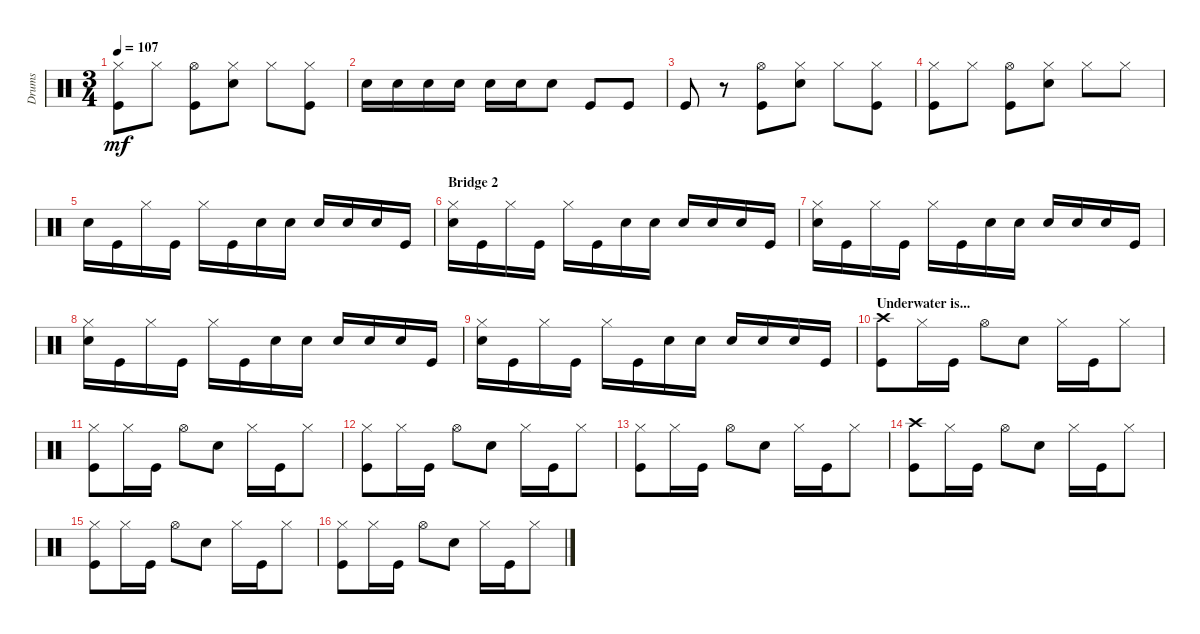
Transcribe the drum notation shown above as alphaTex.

\track ("Drums" "Drums") {instrument percussion}
\staff {score}
\articulation defaults
\ts (3 4)
\tempo 107
\clef neutral
\ks c
("Hi-Hat (closed)" "Kick (hit)").8{dy mf} "Hi-Hat (closed)".8 ("Hi-Hat (open)" "Kick (hit)").8 ("Hi-Hat (closed)" "Snare (hit) 2").8 "Hi-Hat (closed)".8 ("Hi-Hat (closed)" "Kick (hit)").8 |
"Snare (hit) 2".16 "Snare (hit) 2".16 "Snare (hit) 2".16 "Snare (hit) 2".16 "Snare (hit) 2".16 "Snare (hit) 2".16 "Snare (hit) 2".8 "Kick (hit)".8 "Kick (hit)".8 |
"Kick (hit)".8 r.8 ("Hi-Hat (open)" "Kick (hit)").8 ("Snare (hit) 2" "Hi-Hat (closed)").8 "Hi-Hat (closed)".8 ("Hi-Hat (closed)" "Kick (hit)").8 |
("Hi-Hat (closed)" "Kick (hit)").8 "Hi-Hat (closed)".8 ("Hi-Hat (open)" "Kick (hit)").8 ("Hi-Hat (closed)" "Snare (hit) 2").8 "Hi-Hat (closed)".8 "Hi-Hat (closed)".8 |
"Snare (hit) 2".16 "Kick (hit)".16 "Hi-Hat (closed)".16 "Kick (hit)".16 "Hi-Hat (closed)".16 "Kick (hit)".16 "Snare (hit) 2".16 "Snare (hit) 2".16 "Snare (hit) 2".16 "Snare (hit) 2".16 "Snare (hit) 2".16 "Kick (hit)".16 |
\section ("" "Bridge 2")
("Snare (hit) 2" "Hi-Hat (closed)").16 "Kick (hit)".16 "Hi-Hat (closed)".16 "Kick (hit)".16 "Hi-Hat (closed)".16 "Kick (hit)".16 "Snare (hit) 2".16 "Snare (hit) 2".16 "Snare (hit) 2".16 "Snare (hit) 2".16 "Snare (hit) 2".16 "Kick (hit)".16 |
("Snare (hit) 2" "Hi-Hat (closed)").16 "Kick (hit)".16 "Hi-Hat (closed)".16 "Kick (hit)".16 "Hi-Hat (closed)".16 "Kick (hit)".16 "Snare (hit) 2".16 "Snare (hit) 2".16 "Snare (hit) 2".16 "Snare (hit) 2".16 "Snare (hit) 2".16 "Kick (hit)".16 |
("Snare (hit) 2" "Hi-Hat (closed)").16 "Kick (hit)".16 "Hi-Hat (closed)".16 "Kick (hit)".16 "Hi-Hat (closed)".16 "Kick (hit)".16 "Snare (hit) 2".16 "Snare (hit) 2".16 "Snare (hit) 2".16 "Snare (hit) 2".16 "Snare (hit) 2".16 "Kick (hit)".16 |
("Snare (hit) 2" "Hi-Hat (closed)").16 "Kick (hit)".16 "Hi-Hat (closed)".16 "Kick (hit)".16 "Hi-Hat (closed)".16 "Kick (hit)".16 "Snare (hit) 2".16 "Snare (hit) 2".16 "Snare (hit) 2".16 "Snare (hit) 2".16 "Snare (hit) 2".16 "Kick (hit)".16 |
\section ("" "Underwater is...")
("Crash high (hit)" "Kick (hit)").8 "Hi-Hat (closed)".16 "Kick (hit)".16 "Hi-Hat (open)".8 "Snare (hit) 2".8 "Hi-Hat (closed)".16 "Kick (hit)".16 "Hi-Hat (closed)".8 |
("Hi-Hat (closed)" "Kick (hit)").8 "Hi-Hat (closed)".16 "Kick (hit)".16 "Hi-Hat (open)".8 "Snare (hit) 2".8 "Hi-Hat (closed)".16 "Kick (hit)".16 "Hi-Hat (closed)".8 |
("Hi-Hat (closed)" "Kick (hit)").8 "Hi-Hat (closed)".16 "Kick (hit)".16 "Hi-Hat (open)".8 "Snare (hit) 2".8 "Hi-Hat (closed)".16 "Kick (hit)".16 "Hi-Hat (closed)".8 |
("Hi-Hat (closed)" "Kick (hit)").8 "Hi-Hat (closed)".16 "Kick (hit)".16 "Hi-Hat (open)".8 "Snare (hit) 2".8 "Hi-Hat (closed)".16 "Kick (hit)".16 "Hi-Hat (closed)".8 |
("Crash high (hit)" "Kick (hit)").8 "Hi-Hat (closed)".16 "Kick (hit)".16 "Hi-Hat (open)".8 "Snare (hit) 2".8 "Hi-Hat (closed)".16 "Kick (hit)".16 "Hi-Hat (closed)".8 |
("Hi-Hat (closed)" "Kick (hit)").8 "Hi-Hat (closed)".16 "Kick (hit)".16 "Hi-Hat (open)".8 "Snare (hit) 2".8 "Hi-Hat (closed)".16 "Kick (hit)".16 "Hi-Hat (closed)".8 |
("Hi-Hat (closed)" "Kick (hit)").8 "Hi-Hat (closed)".16 "Kick (hit)".16 "Hi-Hat (open)".8 "Snare (hit) 2".8 "Hi-Hat (closed)".16 "Kick (hit)".16 "Hi-Hat (closed)".8
